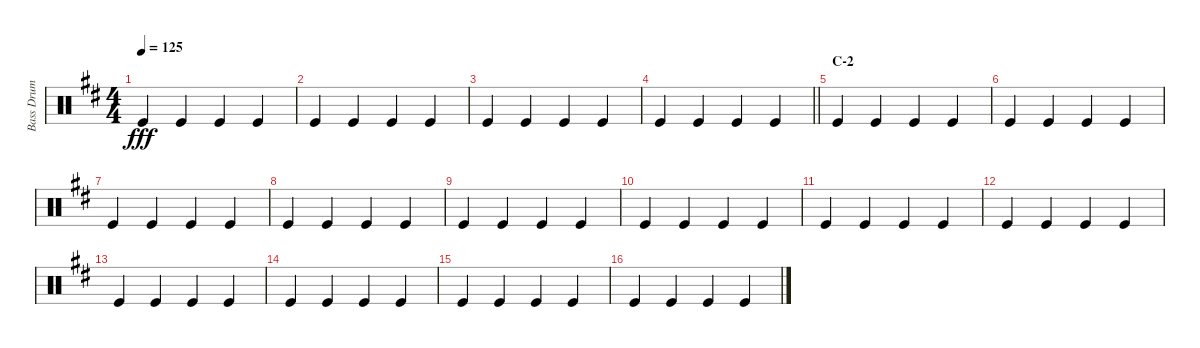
\track ("Bass Drum" "Bass Drum") {instrument percussion}
\staff {score}
\articulation defaults
\ts (4 4)
\tempo 125
\clef neutral
\ks d "Kick (hit)".4{dy fff} "Kick (hit)".4 "Kick (hit)".4 "Kick (hit)".4
|
"Kick (hit)".4 "Kick (hit)".4 "Kick (hit)".4 "Kick (hit)".4 |
"Kick (hit)".4 "Kick (hit)".4 "Kick (hit)".4 "Kick (hit)".4 |
\barLineRight lightlight "Kick (hit)".4 "Kick (hit)".4 "Kick (hit)".4 "Kick (hit)".4
|
\section ("" "C-2")
"Kick (hit)".4 "Kick (hit)".4 "Kick (hit)".4 "Kick (hit)".4 |
"Kick (hit)".4 "Kick (hit)".4 "Kick (hit)".4 "Kick (hit)".4 |
"Kick (hit)".4 "Kick (hit)".4 "Kick (hit)".4 "Kick (hit)".4 |
"Kick (hit)".4 "Kick (hit)".4 "Kick (hit)".4 "Kick (hit)".4 |
"Kick (hit)".4 "Kick (hit)".4 "Kick (hit)".4 "Kick (hit)".4 |
"Kick (hit)".4 "Kick (hit)".4 "Kick (hit)".4 "Kick (hit)".4 |
"Kick (hit)".4 "Kick (hit)".4 "Kick (hit)".4 "Kick (hit)".4 |
"Kick (hit)".4 "Kick (hit)".4 "Kick (hit)".4 "Kick (hit)".4 |
"Kick (hit)".4 "Kick (hit)".4 "Kick (hit)".4 "Kick (hit)".4 |
"Kick (hit)".4 "Kick (hit)".4 "Kick (hit)".4 "Kick (hit)".4 |
"Kick (hit)".4 "Kick (hit)".4 "Kick (hit)".4 "Kick (hit)".4 |
"Kick (hit)".4 "Kick (hit)".4 "Kick (hit)".4 "Kick (hit)".4
